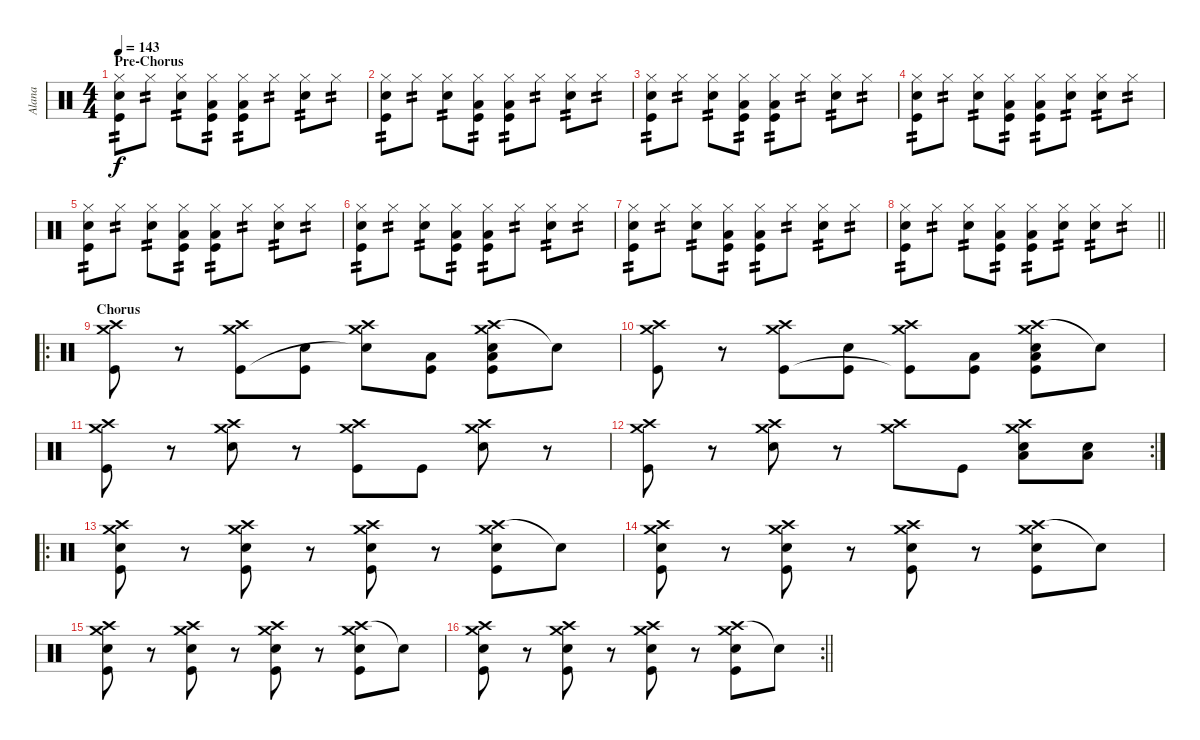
\track ("Alana" "Alana") {instrument percussion}
\staff {score}
\articulation defaults
\ts (4 4)
\section ("" "Pre-Chorus")
\tempo 143
\clef neutral
\ks c
("Hi-Hat (closed)" "Snare (hit)" "Kick (hit)").8{tp 2 dy f} "Hi-Hat (closed)".8{tp 2} ("Hi-Hat (closed)" "Electric Snare (hit)").8{tp 2} ("Hi-Hat (closed)" "Low Floor Tom (hit)" "Kick (hit)").8{tp 2} ("Hi-Hat (closed)" "Low Floor Tom (hit)" "Kick (hit)").8{tp 2} "Hi-Hat (closed)".8{tp 2} ("Hi-Hat (closed)" "Electric Snare (hit)").8{tp 2} "Hi-Hat (closed)".8{tp 2} |
("Hi-Hat (closed)" "Snare (hit)" "Kick (hit)").8{tp 2} "Hi-Hat (closed)".8{tp 2} ("Hi-Hat (closed)" "Electric Snare (hit)").8{tp 2} ("Hi-Hat (closed)" "Low Floor Tom (hit)" "Kick (hit)").8{tp 2} ("Hi-Hat (closed)" "Low Floor Tom (hit)" "Kick (hit)").8{tp 2} "Hi-Hat (closed)".8{tp 2} ("Hi-Hat (closed)" "Electric Snare (hit)").8{tp 2} "Hi-Hat (closed)".8{tp 2} |
("Hi-Hat (closed)" "Snare (hit)" "Kick (hit)").8{tp 2} "Hi-Hat (closed)".8{tp 2} ("Hi-Hat (closed)" "Electric Snare (hit)").8{tp 2} ("Hi-Hat (closed)" "Low Floor Tom (hit)" "Kick (hit)").8{tp 2} ("Hi-Hat (closed)" "Low Floor Tom (hit)" "Kick (hit)").8{tp 2} "Hi-Hat (closed)".8{tp 2} ("Hi-Hat (closed)" "Electric Snare (hit)").8{tp 2} "Hi-Hat (closed)".8{tp 2} |
("Hi-Hat (closed)" "Snare (hit)" "Kick (hit)").8{tp 2} "Hi-Hat (closed)".8{tp 2} ("Hi-Hat (closed)" "Electric Snare (hit)").8{tp 2} ("Hi-Hat (closed)" "Low Floor Tom (hit)" "Kick (hit)").8{tp 2} ("Hi-Hat (closed)" "Low Floor Tom (hit)" "Kick (hit)").8{tp 2} ("Hi-Hat (closed)" "Hand Clap (hit)").8{tp 2} ("Hi-Hat (closed)" "Hand Clap (hit)").8{tp 2} "Hi-Hat (closed)".8{tp 2} |
("Hi-Hat (closed)" "Snare (hit)" "Kick (hit)").8{tp 2} "Hi-Hat (closed)".8{tp 2} ("Hi-Hat (closed)" "Electric Snare (hit)").8{tp 2} ("Hi-Hat (closed)" "Low Floor Tom (hit)" "Kick (hit)").8{tp 2} ("Hi-Hat (closed)" "Low Floor Tom (hit)" "Kick (hit)").8{tp 2} "Hi-Hat (closed)".8{tp 2} ("Hi-Hat (closed)" "Electric Snare (hit)").8{tp 2} "Hi-Hat (closed)".8{tp 2} |
("Hi-Hat (closed)" "Snare (hit)" "Kick (hit)").8{tp 2} "Hi-Hat (closed)".8{tp 2} ("Hi-Hat (closed)" "Electric Snare (hit)").8{tp 2} ("Hi-Hat (closed)" "Low Floor Tom (hit)" "Kick (hit)").8{tp 2} ("Hi-Hat (closed)" "Low Floor Tom (hit)" "Kick (hit)").8{tp 2} "Hi-Hat (closed)".8{tp 2} ("Hi-Hat (closed)" "Electric Snare (hit)").8{tp 2} "Hi-Hat (closed)".8{tp 2} |
("Hi-Hat (closed)" "Snare (hit)" "Kick (hit)").8{tp 2} "Hi-Hat (closed)".8{tp 2} ("Hi-Hat (closed)" "Electric Snare (hit)").8{tp 2} ("Hi-Hat (closed)" "Low Floor Tom (hit)" "Kick (hit)").8{tp 2} ("Hi-Hat (closed)" "Low Floor Tom (hit)" "Kick (hit)").8{tp 2} "Hi-Hat (closed)".8{tp 2} ("Hi-Hat (closed)" "Electric Snare (hit)").8{tp 2} "Hi-Hat (closed)".8{tp 2} |
\barLineRight lightlight
("Hi-Hat (closed)" "Snare (hit)" "Kick (hit)").8{tp 2} "Hi-Hat (closed)".8{tp 2} ("Hi-Hat (closed)" "Electric Snare (hit)").8{tp 2} ("Hi-Hat (closed)" "Low Floor Tom (hit)" "Kick (hit)").8{tp 2} ("Hi-Hat (closed)" "Low Floor Tom (hit)" "Kick (hit)").8{tp 2} ("Hi-Hat (closed)" "Electric Snare (hit)").8{tp 2} ("Hi-Hat (closed)" "Electric Snare (hit)").8{tp 2} "Hi-Hat (closed)".8{tp 2} |
\ro
\section ("" "Chorus")
("Crash medium (hit)" "Crash high (hit)" "Kick (hit)").8 r.8 ("Crash high (hit)" "Crash medium (hit)" "Kick (hit)").8 ("Electric Snare (hit)" "Kick (hit)").8 ("Crash medium (hit)" "Crash high (hit)" "Snare (hit)"{t}).8 ("Low Floor Tom (hit)" "Kick (hit)").8 ("Crash high (hit)" "Crash medium (hit)" "Electric Snare (hit)" "Low Floor Tom (hit)" "Kick (hit)").8 "Snare (hit)"{t}.8 |
("Crash medium (hit)" "Crash high (hit)" "Kick (hit)").8 r.8 ("Crash high (hit)" "Crash medium (hit)" "Kick (hit)").8 ("Electric Snare (hit)" "Kick (hit)").8 ("Crash medium (hit)" "Crash high (hit)" "Kick (hit)"{t}).8 ("Low Floor Tom (hit)" "Kick (hit)").8 ("Crash high (hit)" "Crash medium (hit)" "Low Floor Tom (hit)" "Electric Snare (hit)" "Kick (hit)").8 "Snare (hit)"{t}.8 |
("Crash medium (hit)" "Crash high (hit)" "Kick (hit)").8 r.8 ("Crash medium (hit)" "Crash high (hit)" "Electric Snare (hit)").8 r.8 ("Crash medium (hit)" "Crash high (hit)" "Kick (hit)").8 "Kick (hit)".8 ("Crash medium (hit)" "Crash high (hit)" "Electric Snare (hit)").8 r.8 |
\rc 2
("Crash medium (hit)" "Crash high (hit)" "Kick (hit)").8 r.8 ("Crash medium (hit)" "Crash high (hit)" "Electric Snare (hit)").8 r.8 ("Crash medium (hit)" "Crash high (hit)").8 "Kick (hit)".8 ("Crash medium (hit)" "Crash high (hit)" "Low Floor Tom (hit)" "Electric Snare (hit)").8 ("Low Floor Tom (hit)" "Electric Snare (hit)").8 |
\ro
("Crash medium (hit)" "Crash high (hit)" "Electric Snare (hit)" "Kick (hit)").8 r.8 ("Crash high (hit)" "Crash medium (hit)" "Electric Snare (hit)" "Kick (hit)").8 r.8 ("Crash medium (hit)" "Crash high (hit)" "Electric Snare (hit)" "Kick (hit)").8 r.8 ("Crash high (hit)" "Crash medium (hit)" "Electric Snare (hit)" "Kick (hit)").8 "Snare (hit)"{t}.8 |
("Crash medium (hit)" "Crash high (hit)" "Electric Snare (hit)" "Kick (hit)").8 r.8 ("Crash high (hit)" "Crash medium (hit)" "Electric Snare (hit)" "Kick (hit)").8 r.8 ("Crash medium (hit)" "Crash high (hit)" "Electric Snare (hit)" "Kick (hit)").8 r.8 ("Crash high (hit)" "Crash medium (hit)" "Electric Snare (hit)" "Kick (hit)").8 "Snare (hit)"{t}.8 |
("Crash medium (hit)" "Crash high (hit)" "Electric Snare (hit)" "Kick (hit)").8 r.8 ("Crash high (hit)" "Crash medium (hit)" "Electric Snare (hit)" "Kick (hit)").8 r.8 ("Crash medium (hit)" "Crash high (hit)" "Electric Snare (hit)" "Kick (hit)").8 r.8 ("Crash high (hit)" "Crash medium (hit)" "Electric Snare (hit)" "Kick (hit)").8 "Snare (hit)"{t}.8 |
\rc 2
\barLineRight lightlight
("Crash medium (hit)" "Crash high (hit)" "Electric Snare (hit)" "Kick (hit)").8 r.8 ("Crash high (hit)" "Crash medium (hit)" "Electric Snare (hit)" "Kick (hit)").8 r.8 ("Crash medium (hit)" "Crash high (hit)" "Electric Snare (hit)" "Kick (hit)").8 r.8 ("Crash high (hit)" "Crash medium (hit)" "Electric Snare (hit)" "Kick (hit)").8 "Snare (hit)"{t}.8
